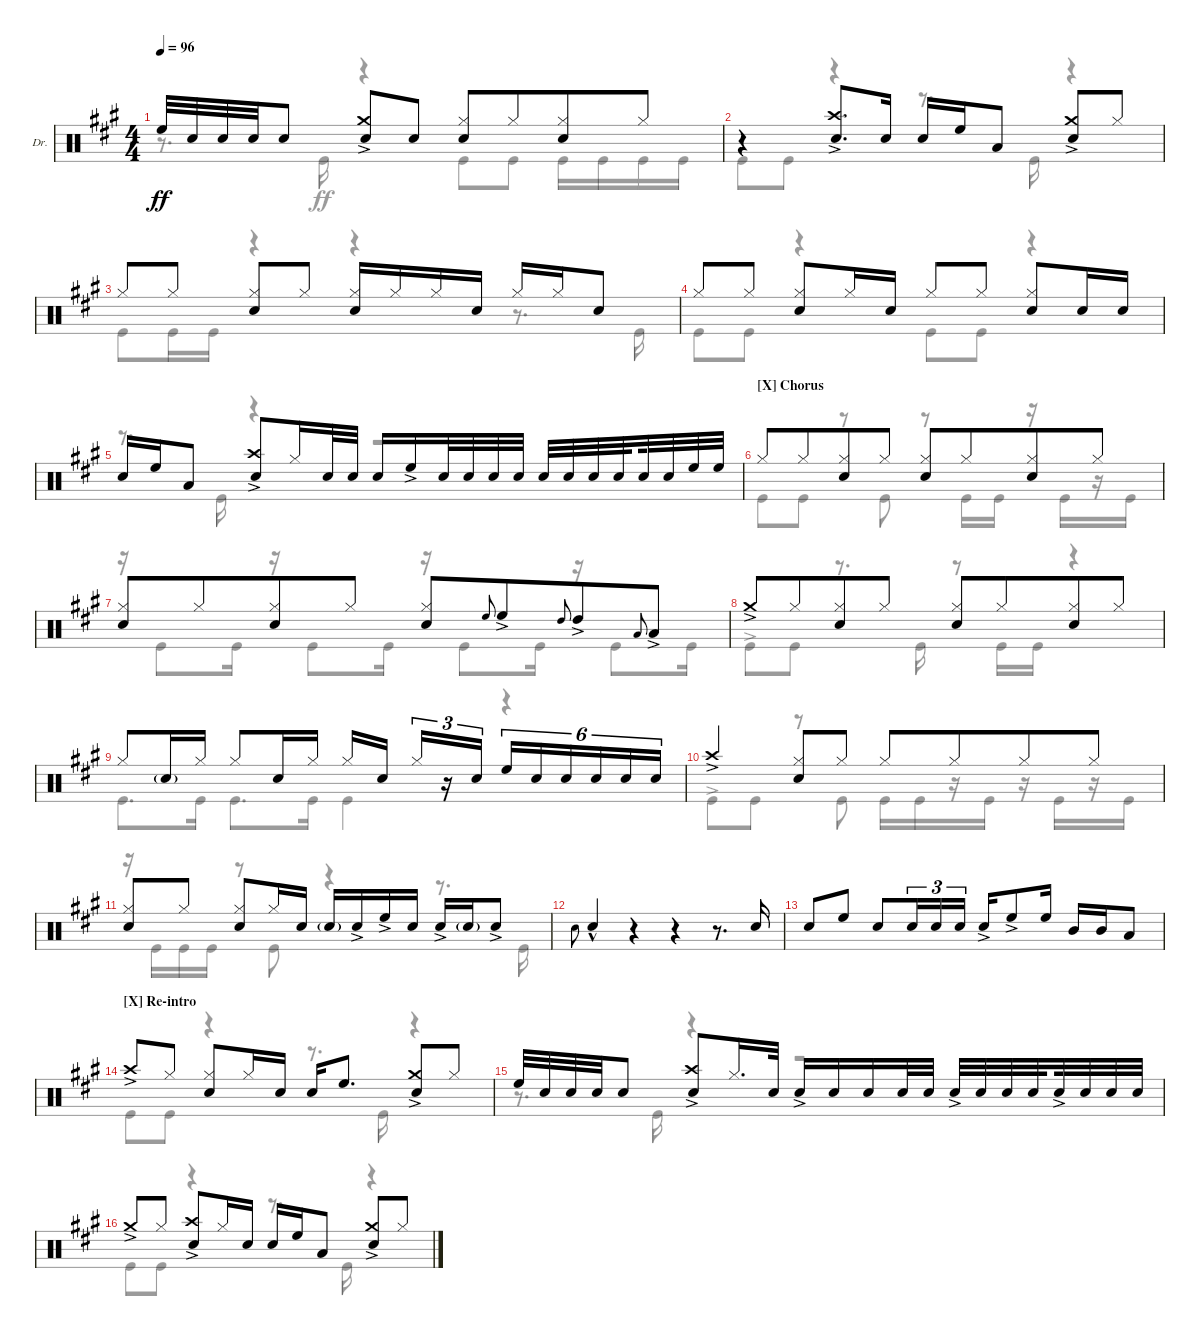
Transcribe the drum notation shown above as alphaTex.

\defaultSystemsLayout 4
\bracketExtendMode groupsimilarinstruments
\firstSystemTrackNameOrientation horizontal
\otherSystemsTrackNameOrientation horizontal
\track ("Drums" "Dr.") {instrument percussion}
\staff {score}
\articulation defaults
\voice
\ts (4 4)
\tempo 96
\clef neutral
\ks a "High Floor Tom (hit)".32{dy ff} "Snare (hit) 2".32 "Snare (hit) 2".32 "Snare (hit) 2".32 "Snare (hit) 2".8
("Snare (hit) 2"{ac} "Crash medium (hit)"{ac}).8 "Snare (hit) 2".8 ("Snare (hit) 2" "Hi-Hat (closed)").8 "Hi-Hat (closed)".8{beam merge} ("Hi-Hat (closed)" "Snare (hit) 2").8 "Hi-Hat (closed)".8 |
r.4 ("Snare (hit) 2"{ac} "Crash high (hit)"{ac}).8{d} "Snare (hit) 2".16 "Snare (hit) 2".16 "High Floor Tom (hit)".16 "Low Tom (hit)".8 ("Snare (hit) 2"{ac} "Crash medium (hit)"{ac}).8 "Hi-Hat (closed)".8 |
"Hi-Hat (closed)".8 "Hi-Hat (closed)".8 ("Hi-Hat (closed)" "Snare (hit) 2").8 "Hi-Hat (closed)".8 ("Hi-Hat (closed)" "Snare (hit) 2").16 "Hi-Hat (closed)".16 "Hi-Hat (closed)".16 "Snare (hit) 2".16 "Hi-Hat (closed)".16 "Hi-Hat (closed)".16 "Snare (hit) 2".8 |
"Hi-Hat (closed)".8 "Hi-Hat (closed)".8 ("Hi-Hat (closed)" "Snare (hit) 2").8 "Hi-Hat (closed)".16 "Snare (hit) 2".16 "Hi-Hat (closed)".8 "Hi-Hat (closed)".8 ("Hi-Hat (closed)" "Snare (hit) 2").8 "Snare (hit) 2".16 "Snare (hit) 2".16 |
"Snare (hit) 2".16 "High Floor Tom (hit)".16 "Low Tom (hit)".8 ("Snare (hit) 2"{ac} "Crash high (hit)"{ac}).8 "Hi-Hat (closed)".16 "Snare (hit) 2".32 "Snare (hit) 2".32 "Snare (hit) 2".16 "High Floor Tom (hit)"{ac}.16 "Snare (hit) 2".32 "Snare (hit) 2".32 "Snare (hit) 2".32 "Snare (hit) 2".32 "Snare (hit) 2".32 "Snare (hit) 2".32 "Snare (hit) 2".32 "Snare (hit) 2".32{beam splitsecondary} "Snare (hit) 2".32 "Snare (hit) 2".32 "High Floor Tom (hit)".32 "High Floor Tom (hit)".32 |
\section ("X" "Chorus")
"Hi-Hat (closed)".8 "Hi-Hat (closed)".8{beam merge} ("Hi-Hat (closed)" "Snare (hit) 2").8 "Hi-Hat (closed)".8 ("Hi-Hat (closed)" "Snare (hit) 2").8 "Hi-Hat (closed)".8{beam merge} ("Hi-Hat (closed)" "Snare (hit) 2").8{beam merge} "Hi-Hat (closed)".8{beam merge} |
("Hi-Hat (closed)" "Snare (hit) 2").8 "Hi-Hat (closed)".8{beam merge} ("Hi-Hat (closed)" "Snare (hit) 2").8{beam merge} "Hi-Hat (closed)".8{beam split} ("Hi-Hat (closed)" "Snare (hit) 2").8{beam merge} "High Floor Tom (hit)".8{gr onbeat beam merge} "High Floor Tom (hit)"{ac}.8{beam merge} "High Tom (hit)".8{gr onbeat beam merge} "High Tom (hit)"{ac}.8 "Low Tom (hit)".8{gr onbeat} "Low Tom (hit)"{ac}.8 |
"Crash medium (hit)"{ac}.8 "Hi-Hat (closed)".8{beam merge} ("Hi-Hat (closed)" "Snare (hit) 2").8 "Hi-Hat (closed)".8 ("Hi-Hat (closed)" "Snare (hit) 2").8 "Hi-Hat (closed)".8{beam merge} ("Hi-Hat (closed)" "Snare (hit) 2").8{beam merge} "Hi-Hat (closed)".8{beam merge} |
"Hi-Hat (closed)".8 "Snare (hit) 2"{g}.16 "Hi-Hat (closed)".16 "Hi-Hat (closed)".8 "Snare (hit) 2".16 "Hi-Hat (closed)".16 "Hi-Hat (closed)".16 "Snare (hit) 2".16{beam splitsecondary} "Hi-Hat (closed)".16{tu (3 2)} r.16{tu (3 2)} "Snare (hit) 2".16{tu (3 2)} "High Floor Tom (hit)".16{tu (6 4)} "Snare (hit) 2".16{tu (6 4)} "Snare (hit) 2".16{tu (6 4) beam merge} "Snare (hit) 2".16{tu (6 4)} "Snare (hit) 2".16{tu (6 4)} "Snare (hit) 2".16{tu (6 4)} |
"Crash high (hit)"{ac}.4 ("Hi-Hat (closed)" "Snare (hit) 2").8 "Hi-Hat (closed)".8 "Hi-Hat (closed)".8 "Hi-Hat (closed)".8{beam merge} "Hi-Hat (closed)".8{beam merge} "Hi-Hat (closed)".8{beam merge} |
("Snare (hit) 2" "Hi-Hat (closed)").8 "Hi-Hat (closed)".8 ("Hi-Hat (closed)" "Snare (hit) 2").8 "Hi-Hat (closed)".16 "Snare (hit) 2".16 "Snare (hit) 2"{g}.16 "Snare (hit) 2"{ac}.16 "High Floor Tom (hit)"{ac}.16 "Snare (hit) 2".16 "Snare (hit) 2"{ac}.16 "Snare (hit) 2"{g}.16 "Snare (hit) 2"{ac}.8 |
"Snare (hit) 2".8{gr onbeat beam invert} "Snare (hit) 2"{hac}.4{beam invert} r.4{beam invert} r.4{beam invert} r.8{d beam invert} "Snare (hit) 2".16{beam invert} |
"Snare (hit) 2".8{beam invert} "High Floor Tom (hit)".8 "Snare (hit) 2".8{beam invert beam merge} "Snare (hit) 2".16{tu (3 2)} "Snare (hit) 2".16{tu (3 2)} "Snare (hit) 2".16{tu (3 2)} "Snare (hit) 2"{ac}.16{beam invert} "High Floor Tom (hit)"{ac}.8 "High Floor Tom (hit)".16 "Mid Tom (hit)".16 "Mid Tom (hit)".16 "Low Tom (hit)".8 |
\section ("X" "Re-intro")
"Crash high (hit)"{ac}.8 "Hi-Hat (closed)".8 ("Hi-Hat (closed)" "Snare (hit) 2").8 "Hi-Hat (closed)".16 "Snare (hit) 2".16 "Snare (hit) 2".16 "High Floor Tom (hit)".8{d} ("Snare (hit) 2"{ac} "Crash medium (hit)"{ac}).8 "Hi-Hat (closed)".8 |
"High Floor Tom (hit)".32 "Snare (hit) 2".32 "Snare (hit) 2".32 "Snare (hit) 2".32 "Snare (hit) 2".8 ("Snare (hit) 2"{ac} "Crash high (hit)"{ac}).8 "Hi-Hat (closed)".16{d} "Snare (hit) 2".32 "Snare (hit) 2"{ac}.16 "Snare (hit) 2".16 "Snare (hit) 2".16 "Snare (hit) 2".32 "Snare (hit) 2".32 "Snare (hit) 2"{ac}.32 "Snare (hit) 2".32 "Snare (hit) 2".32 "Snare (hit) 2".32{beam splitsecondary} "Snare (hit) 2"{ac}.32 "Snare (hit) 2".32 "Snare (hit) 2".32 "Snare (hit) 2".32 |
"Crash medium (hit)"{ac}.8 "Hi-Hat (closed)".8 ("Crash high (hit)"{ac} "Snare (hit) 2"{ac}).8 "Hi-Hat (closed)".16 "Snare (hit) 2".16 "Snare (hit) 2".16 "High Floor Tom (hit)".16 "Low Tom (hit)".8 ("Crash medium (hit)"{ac} "Snare (hit) 2"{ac}).8 "Hi-Hat (closed)".8
\voice
\clef neutral
\ottava regular
\simile none
\ks a
r.8{d dy ff} "Kick (hit)".16 r.4 "Kick (hit)".8 "Kick (hit)".8 "Kick (hit)".16 "Kick (hit)".16 "Kick (hit)".16 "Kick (hit)".16 |
"Kick (hit)".8 "Kick (hit)".8 r.4 r.8{d} "Kick (hit)".16 r.4 |
"Kick (hit)".8 "Kick (hit)".16 "Kick (hit)".16 r.4 r.4 r.8{d} "Kick (hit)".16 |
"Kick (hit)".8 "Kick (hit)".8 r.4 "Kick (hit)".8 "Kick (hit)".8 r.4 |
r.8{d} "Kick (hit)".16 r.4 r.2 |
"Kick (hit)".8 "Kick (hit)".8 r.8 "Kick (hit)".8 r.8 "Kick (hit)".16 "Kick (hit)".16 r.16 "Kick (hit)".16 r.16 "Kick (hit)".16 |
r.16 "Kick (hit)".8 "Kick (hit)".16 r.16 "Kick (hit)".8 "Kick (hit)".16 r.16 "Kick (hit)".8 "Kick (hit)".16 r.16 "Kick (hit)".8 "Kick (hit)".16 |
"Kick (hit)"{ac}.8 "Kick (hit)".8 r.8{d} "Kick (hit)".16 r.8 "Kick (hit)".16 "Kick (hit)".16 r.4 |
"Kick (hit)".8{d} "Kick (hit)".16 "Kick (hit)".8{d} "Kick (hit)".16 "Kick (hit)".4 r.4 |
"Kick (hit)"{ac}.8 "Kick (hit)".8 r.8 "Kick (hit)".8 "Kick (hit)".16 "Kick (hit)".16 r.16 "Kick (hit)".16 r.16 "Kick (hit)".16 r.16 "Kick (hit)".16 |
r.16 "Kick (hit)".16 "Kick (hit)".16 "Kick (hit)".16 r.8 "Kick (hit)".8 r.4 r.8{d} "Kick (hit)".16 |
|
|
"Kick (hit)".8 "Kick (hit)".8 r.4 r.8{d} "Kick (hit)".16 r.4 |
r.8{d} "Kick (hit)".16 r.4 r.2 |
"Kick (hit)".8 "Kick (hit)".8 r.4 r.8{d} "Kick (hit)".16 r.4
